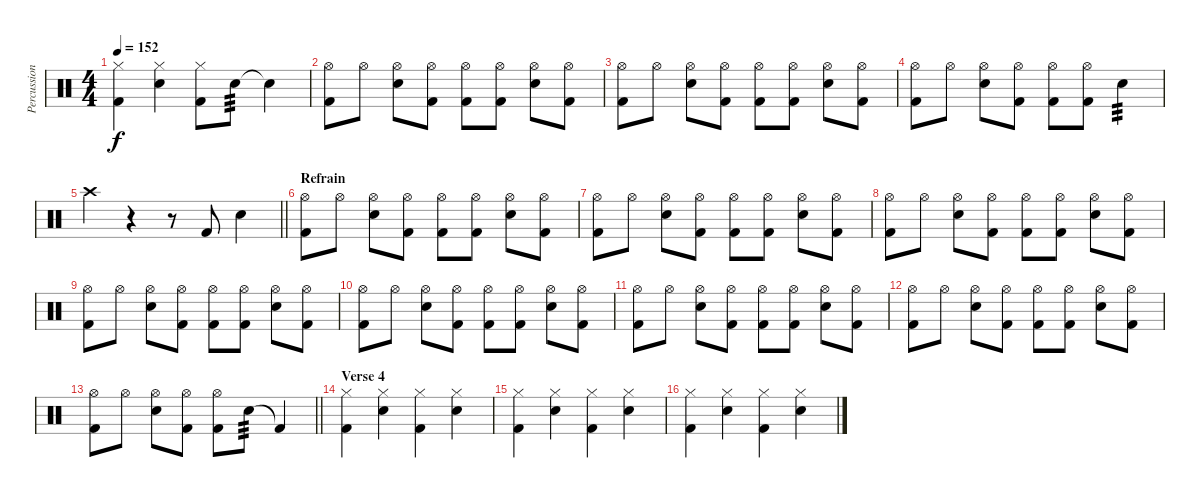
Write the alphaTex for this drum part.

\track ("Percussion" "Percussion") {instrument percussion}
\staff {score}
\articulation defaults
\ts (4 4)
\tempo 152
\clef neutral
\ks c
("Kick (hit) 2" "Hi-Hat (closed)").4{dy f} ("Snare (hit) 2" "Hi-Hat (closed)").4 ("Kick (hit) 2" "Hi-Hat (closed)").8 "Snare (hit) 2".8{tp 3} "Snare (hit)"{t}.4 |
("Kick (hit) 2" "Hi-Hat (open)").8 "Hi-Hat (open)".8 ("Snare (hit) 2" "Hi-Hat (open)").8 ("Kick (hit) 2" "Hi-Hat (open)").8 ("Kick (hit) 2" "Hi-Hat (open)").8 ("Kick (hit) 2" "Hi-Hat (open)").8 ("Snare (hit) 2" "Hi-Hat (open)").8 ("Kick (hit) 2" "Hi-Hat (open)").8 |
("Kick (hit) 2" "Hi-Hat (open)").8 "Hi-Hat (open)".8 ("Snare (hit) 2" "Hi-Hat (open)").8 ("Kick (hit) 2" "Hi-Hat (open)").8 ("Kick (hit) 2" "Hi-Hat (open)").8 ("Kick (hit) 2" "Hi-Hat (open)").8 ("Snare (hit) 2" "Hi-Hat (open)").8 ("Kick (hit) 2" "Hi-Hat (open)").8 |
("Kick (hit) 2" "Hi-Hat (open)").8 "Hi-Hat (open)".8 ("Snare (hit) 2" "Hi-Hat (open)").8 ("Kick (hit) 2" "Hi-Hat (open)").8 ("Kick (hit) 2" "Hi-Hat (open)").8 ("Kick (hit) 2" "Hi-Hat (open)").8 "Snare (hit) 2".4{tp 3} |
\barLineRight lightlight "Crash high (hit)".4
r.4 r.8 "Kick (hit) 2".8 "Snare (hit) 2".4 |
\section ("" "Refrain")
("Kick (hit) 2" "Hi-Hat (open)").8 "Hi-Hat (open)".8 ("Snare (hit) 2" "Hi-Hat (open)").8 ("Kick (hit) 2" "Hi-Hat (open)").8 ("Kick (hit) 2" "Hi-Hat (open)").8 ("Kick (hit) 2" "Hi-Hat (open)").8 ("Snare (hit) 2" "Hi-Hat (open)").8 ("Kick (hit) 2" "Hi-Hat (open)").8 |
("Kick (hit) 2" "Hi-Hat (open)").8 "Hi-Hat (open)".8 ("Snare (hit) 2" "Hi-Hat (open)").8 ("Kick (hit) 2" "Hi-Hat (open)").8 ("Kick (hit) 2" "Hi-Hat (open)").8 ("Kick (hit) 2" "Hi-Hat (open)").8 ("Snare (hit) 2" "Hi-Hat (open)").8 ("Kick (hit) 2" "Hi-Hat (open)").8 |
("Kick (hit) 2" "Hi-Hat (open)").8 "Hi-Hat (open)".8 ("Snare (hit) 2" "Hi-Hat (open)").8 ("Kick (hit) 2" "Hi-Hat (open)").8 ("Kick (hit) 2" "Hi-Hat (open)").8 ("Kick (hit) 2" "Hi-Hat (open)").8 ("Snare (hit) 2" "Hi-Hat (open)").8 ("Kick (hit) 2" "Hi-Hat (open)").8 |
("Kick (hit) 2" "Hi-Hat (open)").8 "Hi-Hat (open)".8 ("Snare (hit) 2" "Hi-Hat (open)").8 ("Kick (hit) 2" "Hi-Hat (open)").8 ("Kick (hit) 2" "Hi-Hat (open)").8 ("Kick (hit) 2" "Hi-Hat (open)").8 ("Snare (hit) 2" "Hi-Hat (open)").8 ("Kick (hit) 2" "Hi-Hat (open)").8 |
("Kick (hit) 2" "Hi-Hat (open)").8 "Hi-Hat (open)".8 ("Snare (hit) 2" "Hi-Hat (open)").8 ("Kick (hit) 2" "Hi-Hat (open)").8 ("Kick (hit) 2" "Hi-Hat (open)").8 ("Kick (hit) 2" "Hi-Hat (open)").8 ("Snare (hit) 2" "Hi-Hat (open)").8 ("Kick (hit) 2" "Hi-Hat (open)").8 |
("Kick (hit) 2" "Hi-Hat (open)").8 "Hi-Hat (open)".8 ("Snare (hit) 2" "Hi-Hat (open)").8 ("Kick (hit) 2" "Hi-Hat (open)").8 ("Kick (hit) 2" "Hi-Hat (open)").8 ("Kick (hit) 2" "Hi-Hat (open)").8 ("Snare (hit) 2" "Hi-Hat (open)").8 ("Kick (hit) 2" "Hi-Hat (open)").8 |
("Kick (hit) 2" "Hi-Hat (open)").8 "Hi-Hat (open)".8 ("Snare (hit) 2" "Hi-Hat (open)").8 ("Kick (hit) 2" "Hi-Hat (open)").8 ("Kick (hit) 2" "Hi-Hat (open)").8 ("Kick (hit) 2" "Hi-Hat (open)").8 ("Snare (hit) 2" "Hi-Hat (open)").8 ("Kick (hit) 2" "Hi-Hat (open)").8 |
\barLineRight lightlight
("Kick (hit) 2" "Hi-Hat (open)").8 "Hi-Hat (open)".8 ("Snare (hit) 2" "Hi-Hat (open)").8 ("Kick (hit) 2" "Hi-Hat (open)").8 ("Kick (hit) 2" "Hi-Hat (open)").8 "Snare (hit) 2".8{tp 3} "Kick (hit) 2"{t}.4 |
\section ("" "Verse 4")
("Kick (hit) 2" "Hi-Hat (closed)").4 ("Snare (hit) 2" "Hi-Hat (closed)").4 ("Kick (hit) 2" "Hi-Hat (closed)").4 ("Snare (hit) 2" "Hi-Hat (closed)").4 |
("Kick (hit) 2" "Hi-Hat (closed)").4 ("Snare (hit) 2" "Hi-Hat (closed)").4 ("Kick (hit) 2" "Hi-Hat (closed)").4 ("Snare (hit) 2" "Hi-Hat (closed)").4 |
("Kick (hit) 2" "Hi-Hat (closed)").4 ("Snare (hit) 2" "Hi-Hat (closed)").4 ("Kick (hit) 2" "Hi-Hat (closed)").4 ("Snare (hit) 2" "Hi-Hat (closed)").4
